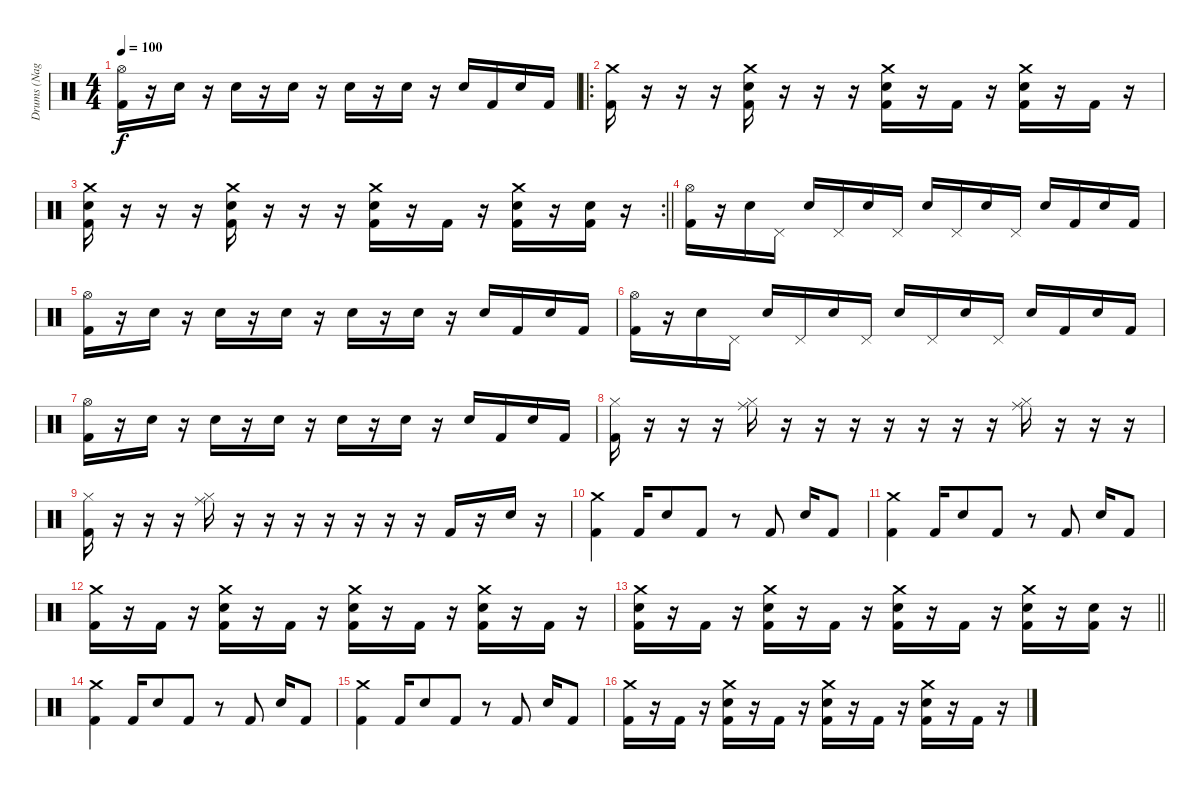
\track ("Drums (Nagy Dávid)" "Drums (Nag") {instrument percussion}
\staff {score}
\articulation defaults
\ts (4 4)
\tempo 100
\clef neutral
\ks c
("Kick (hit) 2" "Hi-Hat (open)").16{dy f} r.16 "Electric Snare (hit)".16 r.16 "Electric Snare (hit)".16 r.16 "Electric Snare (hit)".16 r.16 "Electric Snare (hit)".16 r.16 "Electric Snare (hit)".16 r.16 "Electric Snare (hit)".16 "Kick (hit) 2".16 "Electric Snare (hit)".16 "Kick (hit) 2".16 |
\ro
("Kick (hit) 2" "Crash medium (hit)").16 r.16 r.16 r.16 ("Kick (hit) 2" "Electric Snare (hit)" "Crash medium (hit)").16 r.16 r.16 r.16 ("Kick (hit) 2" "Electric Snare (hit)" "Crash medium (hit)").16 r.16 "Kick (hit) 2".16 r.16 ("Kick (hit) 2" "Electric Snare (hit)" "Crash medium (hit)").16 r.16 "Kick (hit) 2".16 r.16 |
\rc 2
\barLineRight lightlight
("Kick (hit) 2" "Electric Snare (hit)" "Crash medium (hit)").16 r.16 r.16 r.16 ("Kick (hit) 2" "Electric Snare (hit)" "Crash medium (hit)").16 r.16 r.16 r.16 ("Kick (hit) 2" "Electric Snare (hit)" "Crash medium (hit)").16 r.16 "Kick (hit) 2".16 r.16 ("Kick (hit) 2" "Electric Snare (hit)" "Crash medium (hit)").16 r.16 ("Kick (hit) 2" "Electric Snare (hit)").16 r.16 |
("Kick (hit) 2" "Hi-Hat (open)").16 r.16 "Electric Snare (hit)".16 "Pedal Hi-Hat (hit)".16 "Electric Snare (hit)".16 "Pedal Hi-Hat (hit)".16 "Electric Snare (hit)".16 "Pedal Hi-Hat (hit)".16 "Electric Snare (hit)".16 "Pedal Hi-Hat (hit)".16 "Electric Snare (hit)".16 "Pedal Hi-Hat (hit)".16 "Electric Snare (hit)".16 "Kick (hit) 2".16 "Electric Snare (hit)".16 "Kick (hit) 2".16 |
("Kick (hit) 2" "Hi-Hat (open)").16 r.16 "Electric Snare (hit)".16 r.16 "Electric Snare (hit)".16 r.16 "Electric Snare (hit)".16 r.16 "Electric Snare (hit)".16 r.16 "Electric Snare (hit)".16 r.16 "Electric Snare (hit)".16 "Kick (hit) 2".16 "Electric Snare (hit)".16 "Kick (hit) 2".16 |
("Kick (hit) 2" "Hi-Hat (open)").16 r.16 "Electric Snare (hit)".16 "Pedal Hi-Hat (hit)".16 "Electric Snare (hit)".16 "Pedal Hi-Hat (hit)".16 "Electric Snare (hit)".16 "Pedal Hi-Hat (hit)".16 "Electric Snare (hit)".16 "Pedal Hi-Hat (hit)".16 "Electric Snare (hit)".16 "Pedal Hi-Hat (hit)".16 "Electric Snare (hit)".16 "Kick (hit) 2".16 "Electric Snare (hit)".16 "Kick (hit) 2".16 |
("Kick (hit) 2" "Hi-Hat (open)").16 r.16 "Electric Snare (hit)".16 r.16 "Electric Snare (hit)".16 r.16 "Electric Snare (hit)".16 r.16 "Electric Snare (hit)".16 r.16 "Electric Snare (hit)".16 r.16 "Electric Snare (hit)".16 "Kick (hit) 2".16 "Electric Snare (hit)".16 "Kick (hit) 2".16 |
("Kick (hit) 2" "Hi-Hat (closed)").16 r.16 r.16 r.16 ("Ride (middle)" "Hi-Hat (closed)").16 r.16 r.16 r.16 r.16 r.16 r.16 r.16 ("Ride (middle)" "Hi-Hat (closed)").16 r.16 r.16 r.16 |
("Kick (hit) 2" "Hi-Hat (closed)").16 r.16 r.16 r.16 ("Ride (middle)" "Hi-Hat (closed)").16 r.16 r.16 r.16 r.16 r.16 r.16 r.16 "Kick (hit) 2".16 r.16 "Electric Snare (hit)".16 r.16 |
("Kick (hit) 2" "Crash medium (hit)").4 "Kick (hit) 2".16 "Electric Snare (hit)".8 "Kick (hit) 2".8 r.8 "Kick (hit) 2".8 "Electric Snare (hit)".16 "Kick (hit) 2".8 |
("Kick (hit) 2" "Crash medium (hit)").4 "Kick (hit) 2".16 "Electric Snare (hit)".8 "Kick (hit) 2".8 r.8 "Kick (hit) 2".8 "Electric Snare (hit)".16 "Kick (hit) 2".8 |
("Kick (hit) 2" "Crash medium (hit)").16 r.16 "Kick (hit) 2".16 r.16 ("Kick (hit) 2" "Electric Snare (hit)" "Crash medium (hit)").16 r.16 "Kick (hit) 2".16 r.16 ("Kick (hit) 2" "Electric Snare (hit)" "Crash medium (hit)").16 r.16 "Kick (hit) 2".16 r.16 ("Kick (hit) 2" "Electric Snare (hit)" "Crash medium (hit)").16 r.16 "Kick (hit) 2".16 r.16 |
\barLineRight lightlight
("Kick (hit) 2" "Electric Snare (hit)" "Crash medium (hit)").16 r.16 "Kick (hit) 2".16 r.16 ("Kick (hit) 2" "Electric Snare (hit)" "Crash medium (hit)").16 r.16 "Kick (hit) 2".16 r.16 ("Kick (hit) 2" "Electric Snare (hit)" "Crash medium (hit)").16 r.16 "Kick (hit) 2".16 r.16 ("Kick (hit) 2" "Electric Snare (hit)" "Crash medium (hit)").16 r.16 ("Kick (hit) 2" "Electric Snare (hit)").16 r.16 |
("Kick (hit) 2" "Crash medium (hit)").4 "Kick (hit) 2".16 "Electric Snare (hit)".8 "Kick (hit) 2".8 r.8 "Kick (hit) 2".8 "Electric Snare (hit)".16 "Kick (hit) 2".8 |
("Kick (hit) 2" "Crash medium (hit)").4 "Kick (hit) 2".16 "Electric Snare (hit)".8 "Kick (hit) 2".8 r.8 "Kick (hit) 2".8 "Electric Snare (hit)".16 "Kick (hit) 2".8 |
("Kick (hit) 2" "Crash medium (hit)").16 r.16 "Kick (hit) 2".16 r.16 ("Kick (hit) 2" "Electric Snare (hit)" "Crash medium (hit)").16 r.16 "Kick (hit) 2".16 r.16 ("Kick (hit) 2" "Electric Snare (hit)" "Crash medium (hit)").16 r.16 "Kick (hit) 2".16 r.16 ("Kick (hit) 2" "Electric Snare (hit)" "Crash medium (hit)").16 r.16 "Kick (hit) 2".16 r.16
